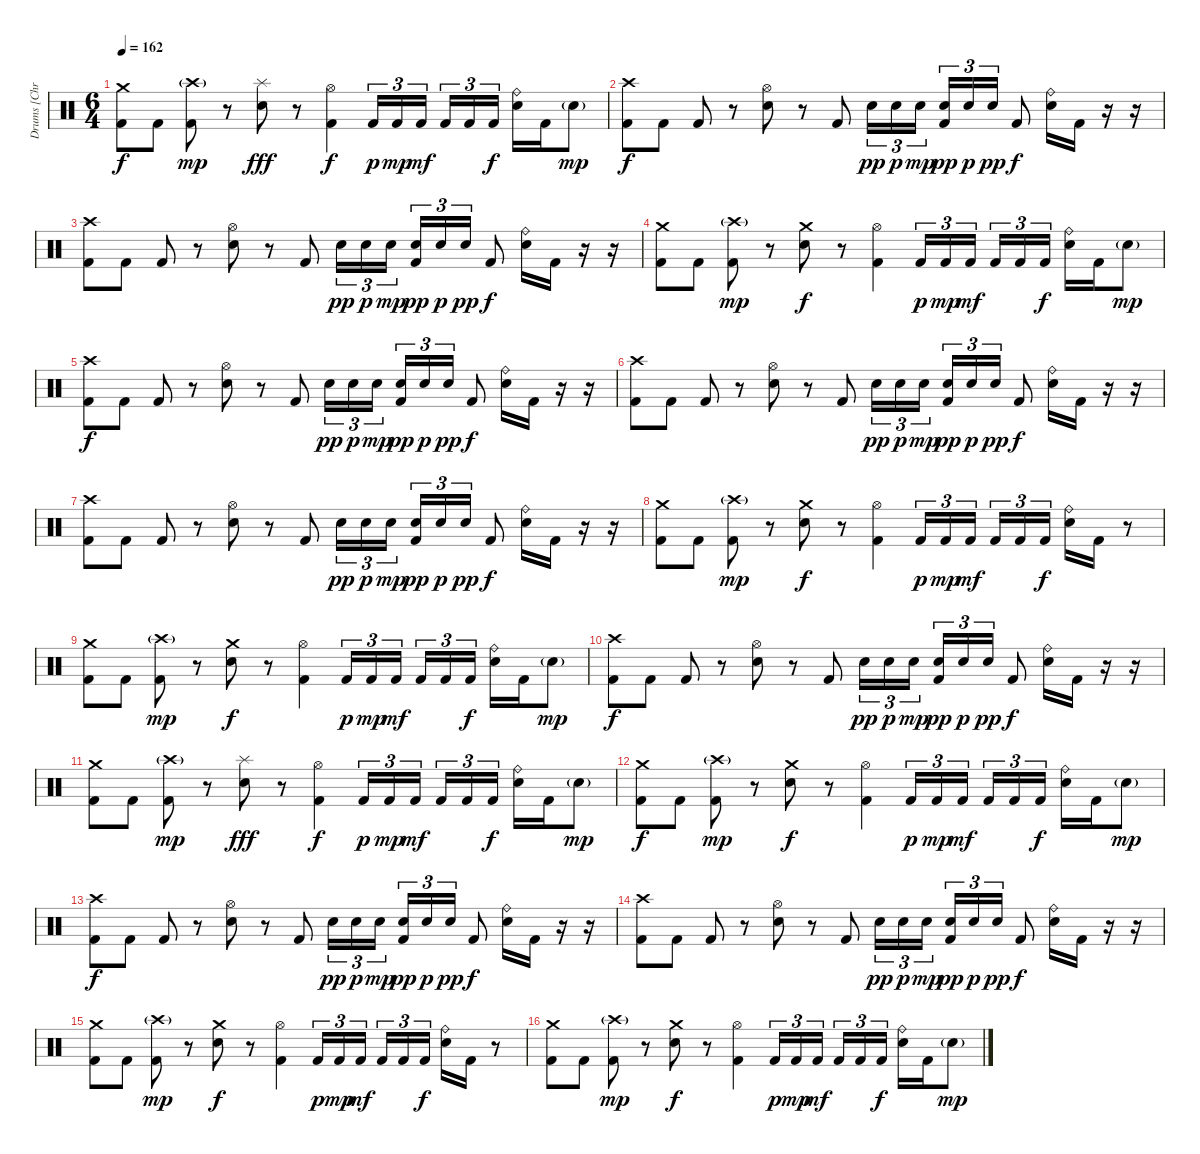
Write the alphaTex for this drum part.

\track ("Drums [Chris Maitland]" "Drums [Chr") {instrument percussion}
\staff {score}
\articulation defaults
\ts (6 4)
\tempo 162
\clef neutral
\ks c
("Crash medium (hit)" "Kick (hit) 2").8{dy f} "Kick (hit) 2".8 ("Crash high (hit)"{g} "Kick (hit) 2").8{dy mp} r.8 ("Splash (hit)" "Electric Snare (hit)").8{dy fff} r.8 ("Hi-Hat (open)" "Kick (hit) 2").4{dy f} "Kick (hit) 2".16{tu (3 2) dy p} "Kick (hit) 2".16{tu (3 2) dy mp} "Kick (hit) 2".16{tu (3 2) dy mf beam splitsecondary} "Kick (hit) 2".16{tu (3 2)} "Kick (hit) 2".16{tu (3 2)} "Kick (hit) 2".16{tu (3 2) dy f beam splitsecondary} ("Ride (bell)" "Electric Snare (hit)").16 "Kick (hit) 2".16 "Electric Snare (hit)"{g}.8{dy mp} |
("Crash high (hit)" "Kick (hit) 2").8{dy f} "Kick (hit) 2".8 "Kick (hit) 2".8 r.8 ("Hi-Hat (open)" "Electric Snare (hit)").8 r.8 "Kick (hit) 2".8 "Electric Snare (hit)".16{tu (3 2) dy pp} "Electric Snare (hit)".16{tu (3 2) dy p} "Electric Snare (hit)".16{tu (3 2) dy mp beam splitsecondary} ("Electric Snare (hit)" "Kick (hit) 2").16{tu (3 2) dy pp} "Electric Snare (hit)".16{tu (3 2) dy p} "Electric Snare (hit)".16{tu (3 2) dy pp} "Kick (hit) 2".8{dy f} ("Ride (bell)" "Electric Snare (hit)").16 "Kick (hit) 2".16 r.16 r.16 |
("Crash high (hit)" "Kick (hit) 2").8 "Kick (hit) 2".8 "Kick (hit) 2".8 r.8 ("Hi-Hat (open)" "Electric Snare (hit)").8 r.8 "Kick (hit) 2".8 "Electric Snare (hit)".16{tu (3 2) dy pp} "Electric Snare (hit)".16{tu (3 2) dy p} "Electric Snare (hit)".16{tu (3 2) dy mp beam splitsecondary} ("Electric Snare (hit)" "Kick (hit) 2").16{tu (3 2) dy pp} "Electric Snare (hit)".16{tu (3 2) dy p} "Electric Snare (hit)".16{tu (3 2) dy pp} "Kick (hit) 2".8{dy f} ("Ride (bell)" "Electric Snare (hit)").16 "Kick (hit) 2".16 r.16 r.16 |
("Crash medium (hit)" "Kick (hit) 2").8 "Kick (hit) 2".8 ("Crash high (hit)"{g} "Kick (hit) 2").8{dy mp} r.8 ("Crash medium (hit)" "Electric Snare (hit)").8{dy f} r.8 ("Hi-Hat (open)" "Kick (hit) 2").4 "Kick (hit) 2".16{tu (3 2) dy p} "Kick (hit) 2".16{tu (3 2) dy mp} "Kick (hit) 2".16{tu (3 2) dy mf beam splitsecondary} "Kick (hit) 2".16{tu (3 2)} "Kick (hit) 2".16{tu (3 2)} "Kick (hit) 2".16{tu (3 2) dy f beam splitsecondary} ("Ride (bell)" "Electric Snare (hit)").16 "Kick (hit) 2".16 "Electric Snare (hit)"{g}.8{dy mp} |
("Crash high (hit)" "Kick (hit) 2").8{dy f} "Kick (hit) 2".8 "Kick (hit) 2".8 r.8 ("Hi-Hat (open)" "Electric Snare (hit)").8 r.8 "Kick (hit) 2".8 "Electric Snare (hit)".16{tu (3 2) dy pp} "Electric Snare (hit)".16{tu (3 2) dy p} "Electric Snare (hit)".16{tu (3 2) dy mp beam splitsecondary} ("Electric Snare (hit)" "Kick (hit) 2").16{tu (3 2) dy pp} "Electric Snare (hit)".16{tu (3 2) dy p} "Electric Snare (hit)".16{tu (3 2) dy pp} "Kick (hit) 2".8{dy f} ("Ride (bell)" "Electric Snare (hit)").16 "Kick (hit) 2".16 r.16 r.16 |
("Crash high (hit)" "Kick (hit) 2").8 "Kick (hit) 2".8 "Kick (hit) 2".8 r.8 ("Hi-Hat (open)" "Electric Snare (hit)").8 r.8 "Kick (hit) 2".8 "Electric Snare (hit)".16{tu (3 2) dy pp} "Electric Snare (hit)".16{tu (3 2) dy p} "Electric Snare (hit)".16{tu (3 2) dy mp beam splitsecondary} ("Electric Snare (hit)" "Kick (hit) 2").16{tu (3 2) dy pp} "Electric Snare (hit)".16{tu (3 2) dy p} "Electric Snare (hit)".16{tu (3 2) dy pp} "Kick (hit) 2".8{dy f} ("Ride (bell)" "Electric Snare (hit)").16 "Kick (hit) 2".16 r.16 r.16 |
("Crash high (hit)" "Kick (hit) 2").8 "Kick (hit) 2".8 "Kick (hit) 2".8 r.8 ("Hi-Hat (open)" "Electric Snare (hit)").8 r.8 "Kick (hit) 2".8 "Electric Snare (hit)".16{tu (3 2) dy pp} "Electric Snare (hit)".16{tu (3 2) dy p} "Electric Snare (hit)".16{tu (3 2) dy mp beam splitsecondary} ("Electric Snare (hit)" "Kick (hit) 2").16{tu (3 2) dy pp} "Electric Snare (hit)".16{tu (3 2) dy p} "Electric Snare (hit)".16{tu (3 2) dy pp} "Kick (hit) 2".8{dy f} ("Ride (bell)" "Electric Snare (hit)").16 "Kick (hit) 2".16 r.16 r.16 |
("Crash medium (hit)" "Kick (hit) 2").8 "Kick (hit) 2".8 ("Crash high (hit)"{g} "Kick (hit) 2").8{dy mp} r.8 ("Crash medium (hit)" "Electric Snare (hit)").8{dy f} r.8 ("Hi-Hat (open)" "Kick (hit) 2").4 "Kick (hit) 2".16{tu (3 2) dy p} "Kick (hit) 2".16{tu (3 2) dy mp} "Kick (hit) 2".16{tu (3 2) dy mf beam splitsecondary} "Kick (hit) 2".16{tu (3 2)} "Kick (hit) 2".16{tu (3 2)} "Kick (hit) 2".16{tu (3 2) dy f beam splitsecondary} ("Ride (bell)" "Electric Snare (hit)").16 "Kick (hit) 2".16 r.8 |
("Crash medium (hit)" "Kick (hit) 2").8 "Kick (hit) 2".8 ("Crash high (hit)"{g} "Kick (hit) 2").8{dy mp} r.8 ("Crash medium (hit)" "Electric Snare (hit)").8{dy f} r.8 ("Hi-Hat (open)" "Kick (hit) 2").4 "Kick (hit) 2".16{tu (3 2) dy p} "Kick (hit) 2".16{tu (3 2) dy mp} "Kick (hit) 2".16{tu (3 2) dy mf beam splitsecondary} "Kick (hit) 2".16{tu (3 2)} "Kick (hit) 2".16{tu (3 2)} "Kick (hit) 2".16{tu (3 2) dy f beam splitsecondary} ("Ride (bell)" "Electric Snare (hit)").16 "Kick (hit) 2".16 "Electric Snare (hit)"{g}.8{dy mp} |
("Crash high (hit)" "Kick (hit) 2").8{dy f} "Kick (hit) 2".8 "Kick (hit) 2".8 r.8 ("Hi-Hat (open)" "Electric Snare (hit)").8 r.8 "Kick (hit) 2".8 "Electric Snare (hit)".16{tu (3 2) dy pp} "Electric Snare (hit)".16{tu (3 2) dy p} "Electric Snare (hit)".16{tu (3 2) dy mp beam splitsecondary} ("Electric Snare (hit)" "Kick (hit) 2").16{tu (3 2) dy pp} "Electric Snare (hit)".16{tu (3 2) dy p} "Electric Snare (hit)".16{tu (3 2) dy pp} "Kick (hit) 2".8{dy f} ("Ride (bell)" "Electric Snare (hit)").16 "Kick (hit) 2".16 r.16 r.16 |
("Crash medium (hit)" "Kick (hit) 2").8 "Kick (hit) 2".8 ("Crash high (hit)"{g} "Kick (hit) 2").8{dy mp} r.8 ("Splash (hit)" "Electric Snare (hit)").8{dy fff} r.8 ("Hi-Hat (open)" "Kick (hit) 2").4{dy f} "Kick (hit) 2".16{tu (3 2) dy p} "Kick (hit) 2".16{tu (3 2) dy mp} "Kick (hit) 2".16{tu (3 2) dy mf beam splitsecondary} "Kick (hit) 2".16{tu (3 2)} "Kick (hit) 2".16{tu (3 2)} "Kick (hit) 2".16{tu (3 2) dy f beam splitsecondary} ("Ride (bell)" "Electric Snare (hit)").16 "Kick (hit) 2".16 "Electric Snare (hit)"{g}.8{dy mp} |
("Crash medium (hit)" "Kick (hit) 2").8{dy f} "Kick (hit) 2".8 ("Crash high (hit)"{g} "Kick (hit) 2").8{dy mp} r.8 ("Crash medium (hit)" "Electric Snare (hit)").8{dy f} r.8 ("Hi-Hat (open)" "Kick (hit) 2").4 "Kick (hit) 2".16{tu (3 2) dy p} "Kick (hit) 2".16{tu (3 2) dy mp} "Kick (hit) 2".16{tu (3 2) dy mf beam splitsecondary} "Kick (hit) 2".16{tu (3 2)} "Kick (hit) 2".16{tu (3 2)} "Kick (hit) 2".16{tu (3 2) dy f beam splitsecondary} ("Ride (bell)" "Electric Snare (hit)").16 "Kick (hit) 2".16 "Electric Snare (hit)"{g}.8{dy mp} |
("Crash high (hit)" "Kick (hit) 2").8{dy f} "Kick (hit) 2".8 "Kick (hit) 2".8 r.8 ("Hi-Hat (open)" "Electric Snare (hit)").8 r.8 "Kick (hit) 2".8 "Electric Snare (hit)".16{tu (3 2) dy pp} "Electric Snare (hit)".16{tu (3 2) dy p} "Electric Snare (hit)".16{tu (3 2) dy mp beam splitsecondary} ("Electric Snare (hit)" "Kick (hit) 2").16{tu (3 2) dy pp} "Electric Snare (hit)".16{tu (3 2) dy p} "Electric Snare (hit)".16{tu (3 2) dy pp} "Kick (hit) 2".8{dy f} ("Ride (bell)" "Electric Snare (hit)").16 "Kick (hit) 2".16 r.16 r.16 |
("Crash high (hit)" "Kick (hit) 2").8 "Kick (hit) 2".8 "Kick (hit) 2".8 r.8 ("Hi-Hat (open)" "Electric Snare (hit)").8 r.8 "Kick (hit) 2".8 "Electric Snare (hit)".16{tu (3 2) dy pp} "Electric Snare (hit)".16{tu (3 2) dy p} "Electric Snare (hit)".16{tu (3 2) dy mp beam splitsecondary} ("Electric Snare (hit)" "Kick (hit) 2").16{tu (3 2) dy pp} "Electric Snare (hit)".16{tu (3 2) dy p} "Electric Snare (hit)".16{tu (3 2) dy pp} "Kick (hit) 2".8{dy f} ("Ride (bell)" "Electric Snare (hit)").16 "Kick (hit) 2".16 r.16 r.16 |
("Crash medium (hit)" "Kick (hit) 2").8 "Kick (hit) 2".8 ("Crash high (hit)"{g} "Kick (hit) 2").8{dy mp} r.8 ("Crash medium (hit)" "Electric Snare (hit)").8{dy f} r.8 ("Hi-Hat (open)" "Kick (hit) 2").4 "Kick (hit) 2".16{tu (3 2) dy p} "Kick (hit) 2".16{tu (3 2) dy mp} "Kick (hit) 2".16{tu (3 2) dy mf beam splitsecondary} "Kick (hit) 2".16{tu (3 2)} "Kick (hit) 2".16{tu (3 2)} "Kick (hit) 2".16{tu (3 2) dy f beam splitsecondary} ("Ride (bell)" "Electric Snare (hit)").16 "Kick (hit) 2".16 r.8 |
("Crash medium (hit)" "Kick (hit) 2").8 "Kick (hit) 2".8 ("Crash high (hit)"{g} "Kick (hit) 2").8{dy mp} r.8 ("Crash medium (hit)" "Electric Snare (hit)").8{dy f} r.8 ("Hi-Hat (open)" "Kick (hit) 2").4 "Kick (hit) 2".16{tu (3 2) dy p} "Kick (hit) 2".16{tu (3 2) dy mp} "Kick (hit) 2".16{tu (3 2) dy mf beam splitsecondary} "Kick (hit) 2".16{tu (3 2)} "Kick (hit) 2".16{tu (3 2)} "Kick (hit) 2".16{tu (3 2) dy f beam splitsecondary} ("Ride (bell)" "Electric Snare (hit)").16 "Kick (hit) 2".16 "Electric Snare (hit)"{g}.8{dy mp}
